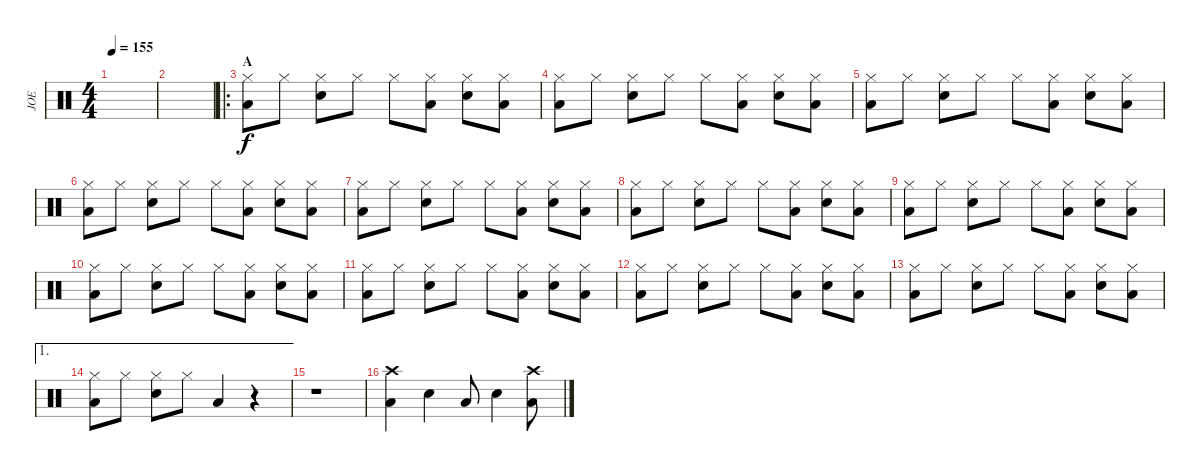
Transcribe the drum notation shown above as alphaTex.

\track ("JOE" "JOE") {instrument percussion}
\staff {score}
\articulation defaults
\ts (4 4)
\tempo 155
\clef neutral
\ks c
|
|
\ro
\section ("" "A")
("Hi-Hat (closed)" "Low Floor Tom (hit)").8 "Hi-Hat (closed)".8 ("Hi-Hat (closed)" "Electric Snare (hit)").8 "Hi-Hat (closed)".8 "Hi-Hat (closed)".8 ("Hi-Hat (closed)" "Low Floor Tom (hit)").8 ("Hi-Hat (closed)" "Electric Snare (hit)").8 ("Hi-Hat (closed)" "Low Floor Tom (hit)").8 |
("Hi-Hat (closed)" "Low Floor Tom (hit)").8 "Hi-Hat (closed)".8 ("Hi-Hat (closed)" "Electric Snare (hit)").8 "Hi-Hat (closed)".8 "Hi-Hat (closed)".8 ("Hi-Hat (closed)" "Low Floor Tom (hit)").8 ("Hi-Hat (closed)" "Electric Snare (hit)").8 ("Hi-Hat (closed)" "Low Floor Tom (hit)").8 |
("Hi-Hat (closed)" "Low Floor Tom (hit)").8 "Hi-Hat (closed)".8 ("Hi-Hat (closed)" "Electric Snare (hit)").8 "Hi-Hat (closed)".8 "Hi-Hat (closed)".8 ("Hi-Hat (closed)" "Low Floor Tom (hit)").8 ("Hi-Hat (closed)" "Electric Snare (hit)").8 ("Hi-Hat (closed)" "Low Floor Tom (hit)").8 |
("Hi-Hat (closed)" "Low Floor Tom (hit)").8 "Hi-Hat (closed)".8 ("Hi-Hat (closed)" "Electric Snare (hit)").8 "Hi-Hat (closed)".8 "Hi-Hat (closed)".8 ("Hi-Hat (closed)" "Low Floor Tom (hit)").8 ("Hi-Hat (closed)" "Electric Snare (hit)").8 ("Hi-Hat (closed)" "Low Floor Tom (hit)").8 |
("Hi-Hat (closed)" "Low Floor Tom (hit)").8 "Hi-Hat (closed)".8 ("Hi-Hat (closed)" "Electric Snare (hit)").8 "Hi-Hat (closed)".8 "Hi-Hat (closed)".8 ("Hi-Hat (closed)" "Low Floor Tom (hit)").8 ("Hi-Hat (closed)" "Electric Snare (hit)").8 ("Hi-Hat (closed)" "Low Floor Tom (hit)").8 |
("Hi-Hat (closed)" "Low Floor Tom (hit)").8 "Hi-Hat (closed)".8 ("Hi-Hat (closed)" "Electric Snare (hit)").8 "Hi-Hat (closed)".8 "Hi-Hat (closed)".8 ("Hi-Hat (closed)" "Low Floor Tom (hit)").8 ("Hi-Hat (closed)" "Electric Snare (hit)").8 ("Hi-Hat (closed)" "Low Floor Tom (hit)").8 |
("Hi-Hat (closed)" "Low Floor Tom (hit)").8 "Hi-Hat (closed)".8 ("Hi-Hat (closed)" "Electric Snare (hit)").8 "Hi-Hat (closed)".8 "Hi-Hat (closed)".8 ("Hi-Hat (closed)" "Low Floor Tom (hit)").8 ("Hi-Hat (closed)" "Electric Snare (hit)").8 ("Hi-Hat (closed)" "Low Floor Tom (hit)").8 |
("Hi-Hat (closed)" "Low Floor Tom (hit)").8 "Hi-Hat (closed)".8 ("Hi-Hat (closed)" "Electric Snare (hit)").8 "Hi-Hat (closed)".8 "Hi-Hat (closed)".8 ("Hi-Hat (closed)" "Low Floor Tom (hit)").8 ("Hi-Hat (closed)" "Electric Snare (hit)").8 ("Hi-Hat (closed)" "Low Floor Tom (hit)").8 |
("Hi-Hat (closed)" "Low Floor Tom (hit)").8 "Hi-Hat (closed)".8 ("Hi-Hat (closed)" "Electric Snare (hit)").8 "Hi-Hat (closed)".8 "Hi-Hat (closed)".8 ("Hi-Hat (closed)" "Low Floor Tom (hit)").8 ("Hi-Hat (closed)" "Electric Snare (hit)").8 ("Hi-Hat (closed)" "Low Floor Tom (hit)").8 |
("Hi-Hat (closed)" "Low Floor Tom (hit)").8 "Hi-Hat (closed)".8 ("Hi-Hat (closed)" "Electric Snare (hit)").8 "Hi-Hat (closed)".8 "Hi-Hat (closed)".8 ("Hi-Hat (closed)" "Low Floor Tom (hit)").8 ("Hi-Hat (closed)" "Electric Snare (hit)").8 ("Hi-Hat (closed)" "Low Floor Tom (hit)").8 |
("Hi-Hat (closed)" "Low Floor Tom (hit)").8 "Hi-Hat (closed)".8 ("Hi-Hat (closed)" "Electric Snare (hit)").8 "Hi-Hat (closed)".8 "Hi-Hat (closed)".8 ("Hi-Hat (closed)" "Low Floor Tom (hit)").8 ("Hi-Hat (closed)" "Electric Snare (hit)").8 ("Hi-Hat (closed)" "Low Floor Tom (hit)").8 |
\ae 1
("Hi-Hat (closed)" "Low Floor Tom (hit)").8 "Hi-Hat (closed)".8 ("Hi-Hat (closed)" "Electric Snare (hit)").8 "Hi-Hat (closed)".8 "Low Floor Tom (hit)".4 r.4 |
r.1 |
("Crash high (hit)" "Low Floor Tom (hit)").4 "Electric Snare (hit)".4 "Low Floor Tom (hit)".8 "Electric Snare (hit)".4 ("Crash high (hit)" "Low Floor Tom (hit)").8
